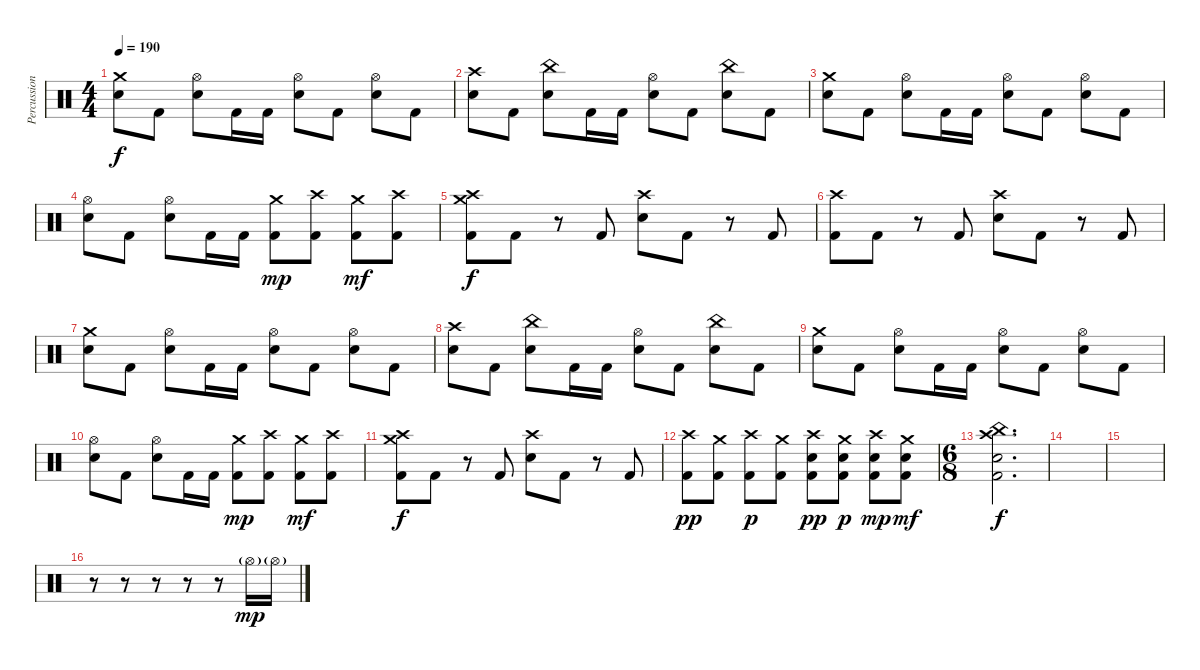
\track ("Percussion" "Percussion") {instrument percussion}
\staff {score}
\articulation defaults
\ts (4 4)
\tempo 190
\clef neutral
\ks c
("Crash medium (hit)" "Electric Snare (hit)").8{dy f} "Kick (hit) 2".8 ("Hi-Hat (open)" "Electric Snare (hit)").8 "Kick (hit) 2".16 "Kick (hit) 2".16 ("Hi-Hat (open)" "Electric Snare (hit)").8 "Kick (hit) 2".8 ("Hi-Hat (open)" "Electric Snare (hit)").8 "Kick (hit) 2".8 |
("Crash high (hit)" "Electric Snare (hit)").8 "Kick (hit) 2".8 ("China (hit)" "Electric Snare (hit)").8 "Kick (hit) 2".16 "Kick (hit) 2".16 ("Hi-Hat (open)" "Electric Snare (hit)").8 "Kick (hit) 2".8 ("China (hit)" "Electric Snare (hit)").8 "Kick (hit) 2".8 |
("Crash medium (hit)" "Electric Snare (hit)").8 "Kick (hit) 2".8 ("Hi-Hat (open)" "Electric Snare (hit)").8 "Kick (hit) 2".16 "Kick (hit) 2".16 ("Hi-Hat (open)" "Electric Snare (hit)").8 "Kick (hit) 2".8 ("Hi-Hat (open)" "Electric Snare (hit)").8 "Kick (hit) 2".8 |
("Hi-Hat (open)" "Electric Snare (hit)").8 "Kick (hit) 2".8 ("Hi-Hat (open)" "Electric Snare (hit)").8 "Kick (hit) 2".16 "Kick (hit) 2".16 ("Crash medium (hit)" "Kick (hit) 2").8{dy mp} ("Crash high (hit)" "Kick (hit) 2").8 ("Crash medium (hit)" "Kick (hit) 2").8{dy mf} ("Crash high (hit)" "Kick (hit) 2").8 |
("Crash high (hit)" "Crash medium (hit)" "Kick (hit) 2").8{dy f} "Kick (hit) 2".8 r.8 "Kick (hit) 2".8 ("Crash high (hit)" "Electric Snare (hit)").8 "Kick (hit) 2".8 r.8 "Kick (hit) 2".8 |
("Crash high (hit)" "Kick (hit) 2").8 "Kick (hit) 2".8 r.8 "Kick (hit) 2".8 ("Crash high (hit)" "Electric Snare (hit)").8 "Kick (hit) 2".8 r.8 "Kick (hit) 2".8 |
("Crash medium (hit)" "Electric Snare (hit)").8 "Kick (hit) 2".8 ("Hi-Hat (open)" "Electric Snare (hit)").8 "Kick (hit) 2".16 "Kick (hit) 2".16 ("Hi-Hat (open)" "Electric Snare (hit)").8 "Kick (hit) 2".8 ("Hi-Hat (open)" "Electric Snare (hit)").8 "Kick (hit) 2".8 |
("Crash high (hit)" "Electric Snare (hit)").8 "Kick (hit) 2".8 ("China (hit)" "Electric Snare (hit)").8 "Kick (hit) 2".16 "Kick (hit) 2".16 ("Hi-Hat (open)" "Electric Snare (hit)").8 "Kick (hit) 2".8 ("China (hit)" "Electric Snare (hit)").8 "Kick (hit) 2".8 |
("Crash medium (hit)" "Electric Snare (hit)").8 "Kick (hit) 2".8 ("Hi-Hat (open)" "Electric Snare (hit)").8 "Kick (hit) 2".16 "Kick (hit) 2".16 ("Hi-Hat (open)" "Electric Snare (hit)").8 "Kick (hit) 2".8 ("Hi-Hat (open)" "Electric Snare (hit)").8 "Kick (hit) 2".8 |
("Hi-Hat (open)" "Electric Snare (hit)").8 "Kick (hit) 2".8 ("Hi-Hat (open)" "Electric Snare (hit)").8 "Kick (hit) 2".16 "Kick (hit) 2".16 ("Crash medium (hit)" "Kick (hit) 2").8{dy mp} ("Crash high (hit)" "Kick (hit) 2").8 ("Crash medium (hit)" "Kick (hit) 2").8{dy mf} ("Crash high (hit)" "Kick (hit) 2").8 |
("Crash high (hit)" "Crash medium (hit)" "Kick (hit) 2").8{dy f} "Kick (hit) 2".8 r.8 "Kick (hit) 2".8 ("Crash high (hit)" "Electric Snare (hit)").8 "Kick (hit) 2".8 r.8 "Kick (hit) 2".8 |
("Crash high (hit)" "Kick (hit) 2").8{dy pp} ("Crash medium (hit)" "Kick (hit) 2").8 ("Crash high (hit)" "Kick (hit) 2").8{dy p} ("Crash medium (hit)" "Kick (hit) 2").8 ("Crash high (hit)" "Electric Snare (hit)" "Kick (hit) 2").8{dy pp} ("Crash medium (hit)" "Electric Snare (hit)" "Kick (hit) 2").8{dy p} ("Crash high (hit)" "Electric Snare (hit)" "Kick (hit) 2").8{dy mp} ("Crash medium (hit)" "Electric Snare (hit)" "Kick (hit) 2").8{dy mf} |
\ts (6 8)
("Crash high (hit)" "China (hit)" "Electric Snare (hit)" "Kick (hit) 2").2{d dy f} |
|
|
r.8 r.8 r.8 r.8 r.8 "Hi-Hat (open)"{g}.16{dy mp} "Hi-Hat (open)"{g}.16
